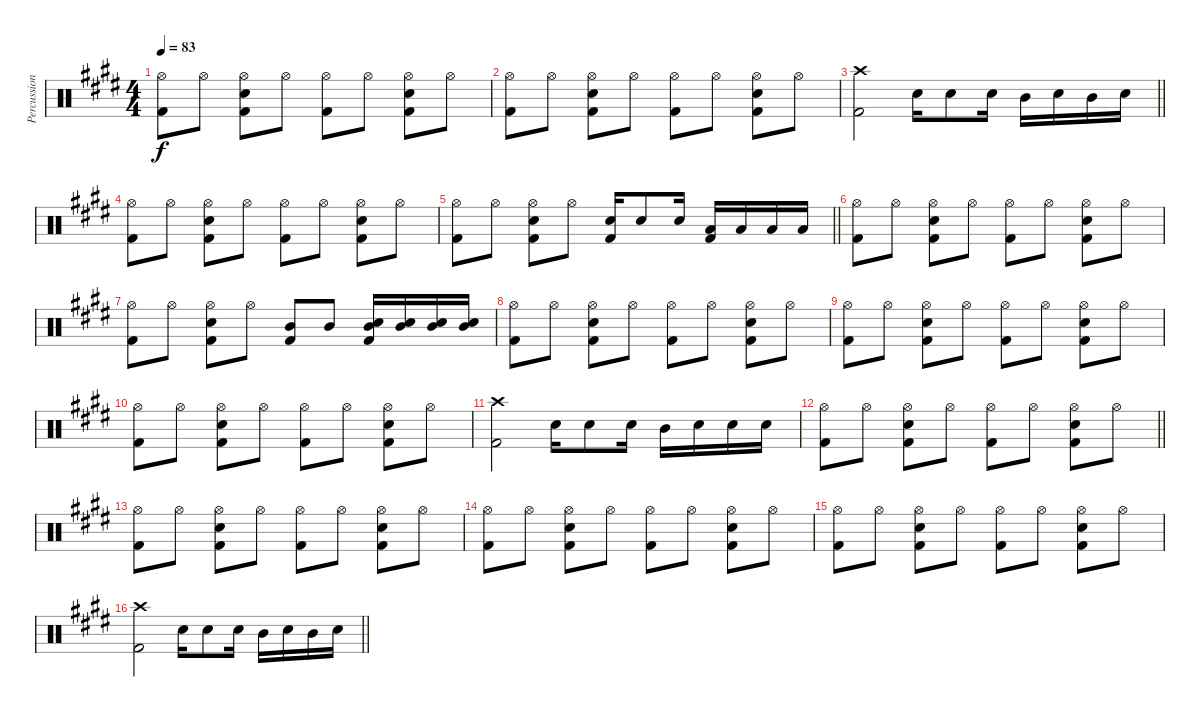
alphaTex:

\track ("Percussion" "Percussion") {instrument percussion}
\staff {score}
\articulation defaults
\ts (4 4)
\tempo 83
\clef neutral
\ks e
("Hi-Hat (open)" "Kick (hit) 2").8{dy f} "Hi-Hat (open)".8 ("Hi-Hat (open)" "Kick (hit) 2" "Snare (hit) 2").8 "Hi-Hat (open)".8 ("Hi-Hat (open)" "Kick (hit) 2").8 "Hi-Hat (open)".8 ("Hi-Hat (open)" "Kick (hit) 2" "Snare (hit) 2").8 "Hi-Hat (open)".8 |
("Hi-Hat (open)" "Kick (hit) 2").8 "Hi-Hat (open)".8 ("Hi-Hat (open)" "Kick (hit) 2" "Snare (hit) 2").8 "Hi-Hat (open)".8 ("Hi-Hat (open)" "Kick (hit) 2").8 "Hi-Hat (open)".8 ("Hi-Hat (open)" "Kick (hit) 2" "Snare (hit) 2").8 "Hi-Hat (open)".8 |
\barLineRight lightlight
("Crash high (hit)" "Kick (hit) 2").2 "Snare (hit) 2".16 "Snare (hit) 2".8 "Snare (hit) 2".16 "Mid Tom (hit)".16 "Snare (hit) 2".16 "Mid Tom (hit)".16 "Snare (hit) 2".16 |
("Hi-Hat (open)" "Kick (hit) 2").8 "Hi-Hat (open)".8 ("Hi-Hat (open)" "Kick (hit) 2" "Snare (hit) 2").8 "Hi-Hat (open)".8 ("Hi-Hat (open)" "Kick (hit) 2").8 "Hi-Hat (open)".8 ("Hi-Hat (open)" "Kick (hit) 2" "Snare (hit) 2").8 "Hi-Hat (open)".8 |
\barLineRight lightlight
("Hi-Hat (open)" "Kick (hit) 2").8 "Hi-Hat (open)".8 ("Hi-Hat (open)" "Kick (hit) 2" "Snare (hit) 2").8 "Hi-Hat (open)".8 ("Snare (hit) 2" "Kick (hit) 2").16 "Snare (hit) 2".8 "Snare (hit) 2".16 ("Low Floor Tom (hit)" "Kick (hit) 2").16 "Low Floor Tom (hit)".16 "Low Floor Tom (hit)".16 "Low Floor Tom (hit)".16 |
("Hi-Hat (open)" "Kick (hit) 2").8 "Hi-Hat (open)".8 ("Hi-Hat (open)" "Kick (hit) 2" "Snare (hit) 2").8 "Hi-Hat (open)".8 ("Hi-Hat (open)" "Kick (hit) 2").8 "Hi-Hat (open)".8 ("Hi-Hat (open)" "Kick (hit) 2" "Snare (hit) 2").8 "Hi-Hat (open)".8 |
("Hi-Hat (open)" "Kick (hit) 2").8 "Hi-Hat (open)".8 ("Hi-Hat (open)" "Snare (hit) 2" "Kick (hit) 2").8 "Hi-Hat (open)".8 ("Mid Tom (hit)" "Kick (hit) 2").8 "Mid Tom (hit)".8 ("Mid Tom (hit)" "Snare (hit) 2" "Kick (hit) 2").16 ("Mid Tom (hit)" "Snare (hit) 2").16 ("Mid Tom (hit)" "Snare (hit) 2").16 ("Mid Tom (hit)" "Snare (hit) 2").16 |
("Hi-Hat (open)" "Kick (hit) 2").8 "Hi-Hat (open)".8 ("Hi-Hat (open)" "Kick (hit) 2" "Snare (hit) 2").8 "Hi-Hat (open)".8 ("Hi-Hat (open)" "Kick (hit) 2").8 "Hi-Hat (open)".8 ("Hi-Hat (open)" "Kick (hit) 2" "Snare (hit) 2").8 "Hi-Hat (open)".8 |
("Hi-Hat (open)" "Kick (hit) 2").8 "Hi-Hat (open)".8 ("Hi-Hat (open)" "Kick (hit) 2" "Snare (hit) 2").8 "Hi-Hat (open)".8 ("Hi-Hat (open)" "Kick (hit) 2").8 "Hi-Hat (open)".8 ("Hi-Hat (open)" "Kick (hit) 2" "Snare (hit) 2").8 "Hi-Hat (open)".8 |
("Hi-Hat (open)" "Kick (hit) 2").8 "Hi-Hat (open)".8 ("Hi-Hat (open)" "Kick (hit) 2" "Snare (hit) 2").8 "Hi-Hat (open)".8 ("Hi-Hat (open)" "Kick (hit) 2").8 "Hi-Hat (open)".8 ("Hi-Hat (open)" "Kick (hit) 2" "Snare (hit) 2").8 "Hi-Hat (open)".8 |
("Crash high (hit)" "Kick (hit) 2").2 "Snare (hit) 2".16 "Snare (hit) 2".8 "Snare (hit) 2".16 "Mid Tom (hit)".16 "Snare (hit) 2".16 "Snare (hit) 2".16 "Snare (hit) 2".16 |
\barLineRight lightlight
("Hi-Hat (open)" "Kick (hit) 2").8 "Hi-Hat (open)".8 ("Hi-Hat (open)" "Kick (hit) 2" "Snare (hit) 2").8 "Hi-Hat (open)".8 ("Hi-Hat (open)" "Kick (hit) 2").8 "Hi-Hat (open)".8 ("Hi-Hat (open)" "Kick (hit) 2" "Snare (hit) 2").8 "Hi-Hat (open)".8 |
("Hi-Hat (open)" "Kick (hit) 2").8 "Hi-Hat (open)".8 ("Hi-Hat (open)" "Kick (hit) 2" "Snare (hit) 2").8 "Hi-Hat (open)".8 ("Hi-Hat (open)" "Kick (hit) 2").8 "Hi-Hat (open)".8 ("Hi-Hat (open)" "Kick (hit) 2" "Snare (hit) 2").8 "Hi-Hat (open)".8 |
("Hi-Hat (open)" "Kick (hit) 2").8 "Hi-Hat (open)".8 ("Hi-Hat (open)" "Kick (hit) 2" "Snare (hit) 2").8 "Hi-Hat (open)".8 ("Hi-Hat (open)" "Kick (hit) 2").8 "Hi-Hat (open)".8 ("Hi-Hat (open)" "Kick (hit) 2" "Snare (hit) 2").8 "Hi-Hat (open)".8 |
("Hi-Hat (open)" "Kick (hit) 2").8 "Hi-Hat (open)".8 ("Hi-Hat (open)" "Kick (hit) 2" "Snare (hit) 2").8 "Hi-Hat (open)".8 ("Hi-Hat (open)" "Kick (hit) 2").8 "Hi-Hat (open)".8 ("Hi-Hat (open)" "Kick (hit) 2" "Snare (hit) 2").8 "Hi-Hat (open)".8 |
\barLineRight lightlight
("Crash high (hit)" "Kick (hit) 2").2 "Snare (hit) 2".16 "Snare (hit) 2".8 "Snare (hit) 2".16 "Mid Tom (hit)".16 "Snare (hit) 2".16 "Mid Tom (hit)".16 "Snare (hit) 2".16
